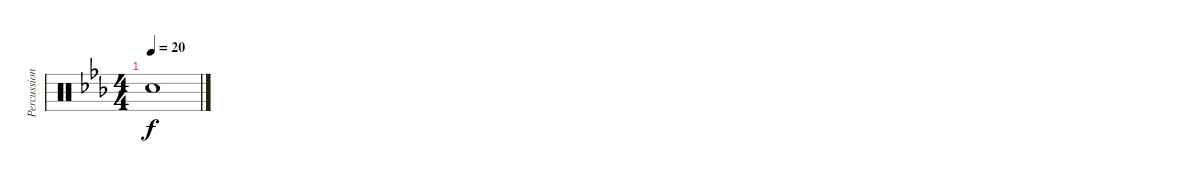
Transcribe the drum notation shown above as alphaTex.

\track ("Percussion (Tainaka Ritsu)" "Percussion") {instrument percussion}
\staff {score}
\articulation defaults
\ts (4 4)
\tempo 20
\clef neutral
\ks eb "Snare (hit)"{t}.1{dy f}
